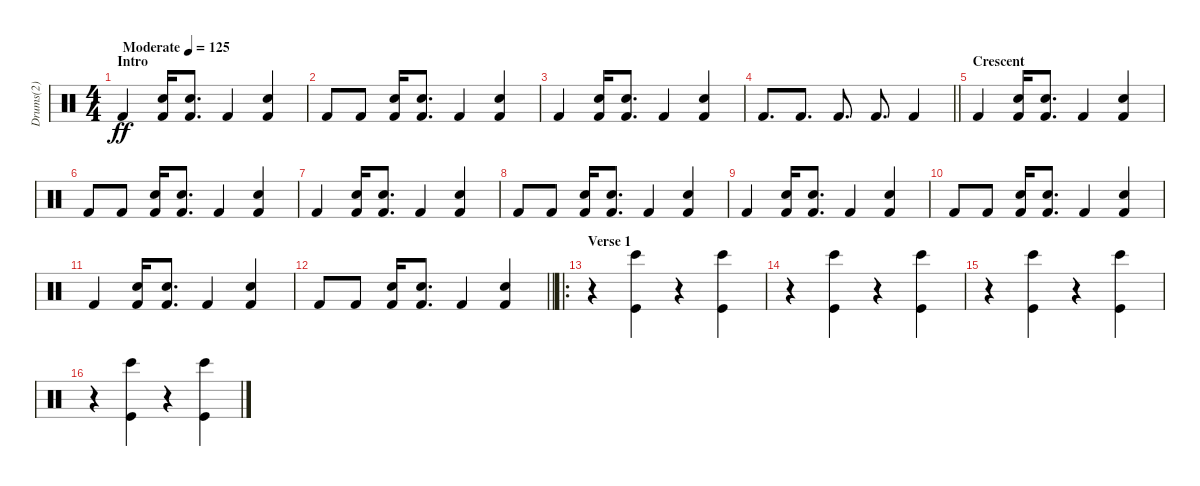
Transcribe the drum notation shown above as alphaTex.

\track ("Drums(2)" "Drums(2)") {instrument percussion}
\staff {score}
\articulation defaults
\ts (4 4)
\section ("" "Intro")
\tempo (125 "Moderate")
\clef neutral
\ks c "Kick (hit) 2".4{dy ff}
("Snare (hit) 2" "Kick (hit) 2").16 ("Electric Snare (hit)" "Kick (hit) 2").8{d} "Kick (hit) 2".4 ("Electric Snare (hit)" "Kick (hit) 2").4 |
"Kick (hit) 2".8 "Kick (hit) 2".8 ("Snare (hit) 2" "Kick (hit) 2").16 ("Electric Snare (hit)" "Kick (hit) 2").8{d} "Kick (hit) 2".4 ("Electric Snare (hit)" "Kick (hit) 2").4 |
"Kick (hit) 2".4 ("Snare (hit) 2" "Kick (hit) 2").16 ("Electric Snare (hit)" "Kick (hit) 2").8{d} "Kick (hit) 2".4 ("Electric Snare (hit)" "Kick (hit) 2").4 |
\barLineRight lightlight "Kick (hit) 2".8{d} "Kick (hit) 2".8{d} "Kick (hit) 2".8{d} "Kick (hit) 2".8{d} "Kick (hit) 2".4
|
\section ("" "Crescent")
"Kick (hit) 2".4 ("Snare (hit) 2" "Kick (hit) 2").16 ("Electric Snare (hit)" "Kick (hit) 2").8{d} "Kick (hit) 2".4 ("Electric Snare (hit)" "Kick (hit) 2").4 |
"Kick (hit) 2".8 "Kick (hit) 2".8 ("Snare (hit) 2" "Kick (hit) 2").16 ("Electric Snare (hit)" "Kick (hit) 2").8{d} "Kick (hit) 2".4 ("Electric Snare (hit)" "Kick (hit) 2").4 |
"Kick (hit) 2".4 ("Snare (hit) 2" "Kick (hit) 2").16 ("Electric Snare (hit)" "Kick (hit) 2").8{d} "Kick (hit) 2".4 ("Electric Snare (hit)" "Kick (hit) 2").4 |
"Kick (hit) 2".8 "Kick (hit) 2".8 ("Snare (hit) 2" "Kick (hit) 2").16 ("Electric Snare (hit)" "Kick (hit) 2").8{d} "Kick (hit) 2".4 ("Electric Snare (hit)" "Kick (hit) 2").4 |
"Kick (hit) 2".4 ("Snare (hit) 2" "Kick (hit) 2").16 ("Electric Snare (hit)" "Kick (hit) 2").8{d} "Kick (hit) 2".4 ("Electric Snare (hit)" "Kick (hit) 2").4 |
"Kick (hit) 2".8 "Kick (hit) 2".8 ("Snare (hit) 2" "Kick (hit) 2").16 ("Electric Snare (hit)" "Kick (hit) 2").8{d} "Kick (hit) 2".4 ("Electric Snare (hit)" "Kick (hit) 2").4 |
"Kick (hit) 2".4 ("Snare (hit) 2" "Kick (hit) 2").16 ("Electric Snare (hit)" "Kick (hit) 2").8{d} "Kick (hit) 2".4 ("Electric Snare (hit)" "Kick (hit) 2").4 |
\barLineRight lightlight "Kick (hit) 2".8 "Kick (hit) 2".8
("Snare (hit) 2" "Kick (hit) 2").16 ("Electric Snare (hit)" "Kick (hit) 2").8{d} "Kick (hit) 2".4 ("Electric Snare (hit)" "Kick (hit) 2").4 |
\ro
\section ("" "Verse 1")
r.4 ("Kick (hit)" "Bongo High (hit)").4 r.4 ("Kick (hit)" "Bongo High (hit)").4 |
r.4 ("Kick (hit)" "Bongo High (hit)").4 r.4 ("Kick (hit)" "Bongo High (hit)").4 |
r.4 ("Kick (hit)" "Bongo High (hit)").4 r.4 ("Kick (hit)" "Bongo High (hit)").4 |
r.4 ("Kick (hit)" "Bongo High (hit)").4 r.4 ("Kick (hit)" "Bongo High (hit)").4
